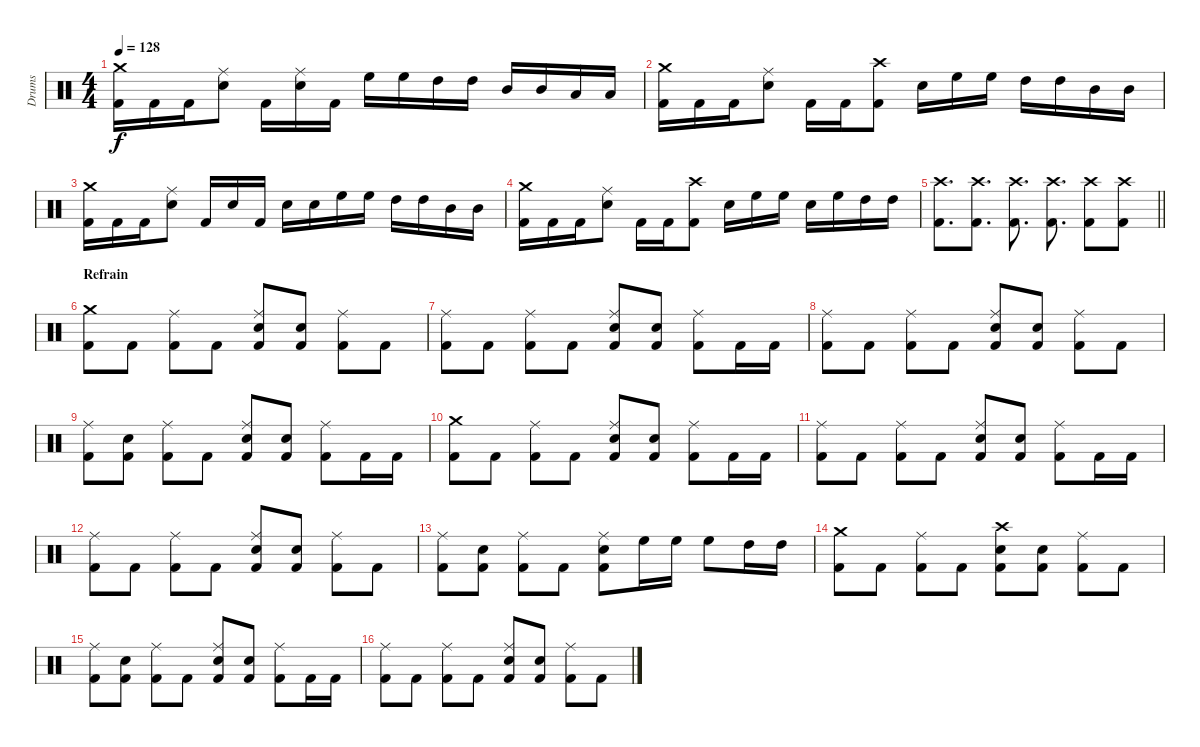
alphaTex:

\track ("Drums" "Drums") {instrument percussion}
\staff {score}
\articulation defaults
\ts (4 4)
\tempo 128
\clef neutral
\ks c
("Crash medium (hit)" "Kick (hit) 2").16{dy f} "Kick (hit) 2".16 "Kick (hit) 2".16 ("Ride (middle)" "Snare (hit) 2").8 "Kick (hit) 2".16 ("Ride (middle)" "Snare (hit) 2").16 "Kick (hit) 2".16 "High Floor Tom (hit)".16 "High Floor Tom (hit)".16 "High Tom (hit)".16 "High Tom (hit)".16 "Mid Tom (hit)".16 "Mid Tom (hit)".16 "Low Tom (hit)".16 "Low Tom (hit)".16 |
("Crash medium (hit)" "Kick (hit) 2").16 "Kick (hit) 2".16 "Kick (hit) 2".16 ("Ride (middle)" "Snare (hit) 2").8 "Kick (hit) 2".16 "Kick (hit) 2".16 ("Crash high (hit)" "Kick (hit) 2").8 "Snare (hit) 2".16 "High Floor Tom (hit)".16 "High Floor Tom (hit)".16 "High Tom (hit)".16 "High Tom (hit)".16 "Mid Tom (hit)".16 "Mid Tom (hit)".16 |
("Crash medium (hit)" "Kick (hit) 2").16 "Kick (hit) 2".16 "Kick (hit) 2".16 ("Ride (middle)" "Snare (hit) 2").8 "Kick (hit) 2".16 "Snare (hit) 2".16 "Kick (hit) 2".16 "Snare (hit) 2".16 "Snare (hit) 2".16 "High Floor Tom (hit)".16 "High Floor Tom (hit)".16 "High Tom (hit)".16 "High Tom (hit)".16 "Mid Tom (hit)".16 "Mid Tom (hit)".16 |
("Crash medium (hit)" "Kick (hit) 2").16 "Kick (hit) 2".16 "Kick (hit) 2".16 ("Ride (middle)" "Snare (hit) 2").8 "Kick (hit) 2".16 "Kick (hit) 2".16 ("Crash high (hit)" "Kick (hit) 2").8 "Snare (hit) 2".16 "High Floor Tom (hit)".16 "High Floor Tom (hit)".16 "Snare (hit) 2".16 "High Floor Tom (hit)".16 "High Tom (hit)".16 "High Tom (hit)".16 |
\barLineRight lightlight
("Crash high (hit)" "Kick (hit) 2").8{d} ("Crash high (hit)" "Kick (hit) 2").8{d} ("Crash high (hit)" "Kick (hit) 2").8{d} ("Crash high (hit)" "Kick (hit) 2").8{d} ("Crash high (hit)" "Kick (hit) 2").8 ("Crash high (hit)" "Kick (hit) 2").8 |
\section ("" "Refrain")
("Crash medium (hit)" "Kick (hit) 2").8 "Kick (hit) 2".8 ("Ride (middle)" "Kick (hit) 2").8 "Kick (hit) 2".8 ("Ride (middle)" "Snare (hit) 2" "Kick (hit) 2").8 ("Snare (hit) 2" "Kick (hit) 2").8 ("Ride (middle)" "Kick (hit) 2").8 "Kick (hit) 2".8 |
("Ride (middle)" "Kick (hit) 2").8 "Kick (hit) 2".8 ("Ride (middle)" "Kick (hit) 2").8 "Kick (hit) 2".8 ("Ride (middle)" "Snare (hit) 2" "Kick (hit) 2").8 ("Snare (hit) 2" "Kick (hit) 2").8 ("Ride (middle)" "Kick (hit) 2").8 "Kick (hit) 2".16 "Kick (hit) 2".16 |
("Ride (middle)" "Kick (hit) 2").8 "Kick (hit) 2".8 ("Ride (middle)" "Kick (hit) 2").8 "Kick (hit) 2".8 ("Ride (middle)" "Snare (hit) 2" "Kick (hit) 2").8 ("Snare (hit) 2" "Kick (hit) 2").8 ("Ride (middle)" "Kick (hit) 2").8 "Kick (hit) 2".8 |
("Ride (middle)" "Kick (hit) 2").8 ("Snare (hit) 2" "Kick (hit) 2").8 ("Ride (middle)" "Kick (hit) 2").8 "Kick (hit) 2".8 ("Ride (middle)" "Snare (hit) 2" "Kick (hit) 2").8 ("Snare (hit) 2" "Kick (hit) 2").8 ("Ride (middle)" "Kick (hit) 2").8 "Kick (hit) 2".16 "Kick (hit) 2".16 |
("Crash medium (hit)" "Kick (hit) 2").8 "Kick (hit) 2".8 ("Ride (middle)" "Kick (hit) 2").8 "Kick (hit) 2".8 ("Ride (middle)" "Snare (hit) 2" "Kick (hit) 2").8 ("Snare (hit) 2" "Kick (hit) 2").8 ("Ride (middle)" "Kick (hit) 2").8 "Kick (hit) 2".16 "Kick (hit) 2".16 |
("Ride (middle)" "Kick (hit) 2").8 "Kick (hit) 2".8 ("Ride (middle)" "Kick (hit) 2").8 "Kick (hit) 2".8 ("Ride (middle)" "Snare (hit) 2" "Kick (hit) 2").8 ("Snare (hit) 2" "Kick (hit) 2").8 ("Ride (middle)" "Kick (hit) 2").8 "Kick (hit) 2".16 "Kick (hit) 2".16 |
("Ride (middle)" "Kick (hit) 2").8 "Kick (hit) 2".8 ("Ride (middle)" "Kick (hit) 2").8 "Kick (hit) 2".8 ("Ride (middle)" "Snare (hit) 2" "Kick (hit) 2").8 ("Snare (hit) 2" "Kick (hit) 2").8 ("Ride (middle)" "Kick (hit) 2").8 "Kick (hit) 2".8 |
("Ride (middle)" "Kick (hit) 2").8 ("Snare (hit) 2" "Kick (hit) 2").8 ("Ride (middle)" "Kick (hit) 2").8 "Kick (hit) 2".8 ("Ride (middle)" "Snare (hit) 2" "Kick (hit) 2").8 "High Floor Tom (hit)".16 "High Floor Tom (hit)".16 "High Floor Tom (hit)".8 "High Tom (hit)".16 "High Tom (hit)".16 |
("Crash medium (hit)" "Kick (hit) 2").8 "Kick (hit) 2".8 ("Ride (middle)" "Kick (hit) 2").8 "Kick (hit) 2".8 ("Crash high (hit)" "Snare (hit) 2" "Kick (hit) 2").8 ("Snare (hit) 2" "Kick (hit) 2").8 ("Ride (middle)" "Kick (hit) 2").8 "Kick (hit) 2".8 |
("Ride (middle)" "Kick (hit) 2").8 ("Snare (hit) 2" "Kick (hit) 2").8 ("Ride (middle)" "Kick (hit) 2").8 "Kick (hit) 2".8 ("Ride (middle)" "Snare (hit) 2" "Kick (hit) 2").8 ("Snare (hit) 2" "Kick (hit) 2").8 ("Ride (middle)" "Kick (hit) 2").8 "Kick (hit) 2".16 "Kick (hit) 2".16 |
("Ride (middle)" "Kick (hit) 2").8 "Kick (hit) 2".8 ("Ride (middle)" "Kick (hit) 2").8 "Kick (hit) 2".8 ("Ride (middle)" "Snare (hit) 2" "Kick (hit) 2").8 ("Snare (hit) 2" "Kick (hit) 2").8 ("Ride (middle)" "Kick (hit) 2").8 "Kick (hit) 2".8
